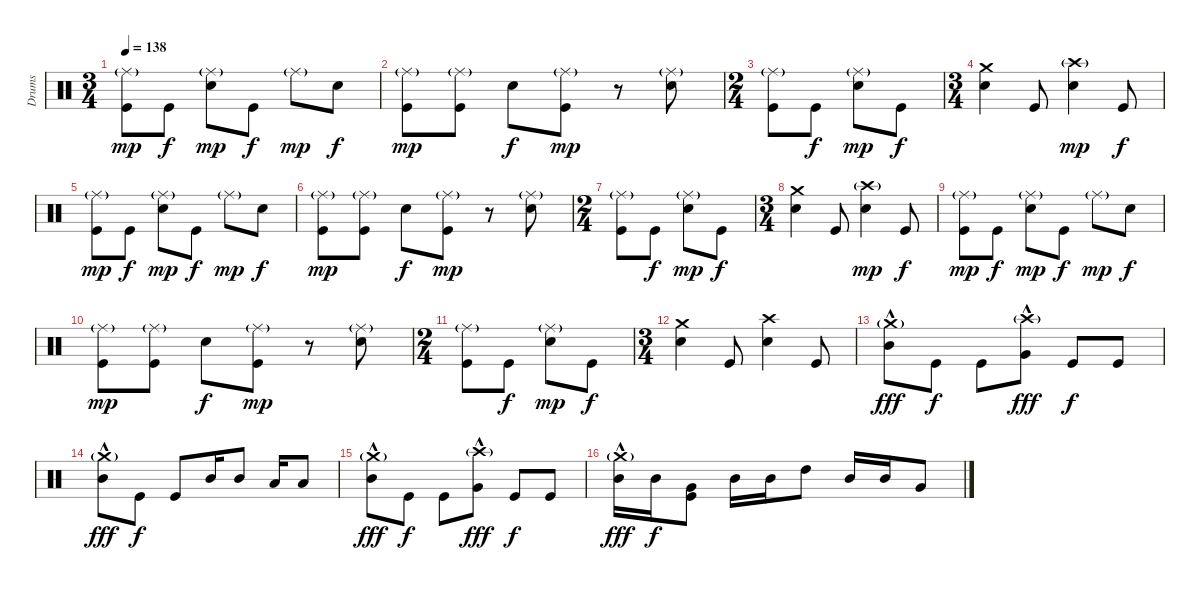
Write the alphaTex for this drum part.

\track ("Drums" "Drums") {instrument percussion}
\staff {score}
\articulation defaults
\ts (3 4)
\tempo 138
\clef neutral
\ks c
("Ride (middle)"{g} "Kick (hit)").8{dy mp} "Kick (hit)".8{dy f} ("Ride (middle)"{g} "Electric Snare (hit)").8{dy mp} "Kick (hit)".8{dy f} "Ride (middle)"{g}.8{dy mp} "Electric Snare (hit)".8{dy f} |
("Ride (middle)"{g} "Kick (hit)").8{dy mp} ("Ride (middle)"{g} "Kick (hit)").8 "Electric Snare (hit)".8{dy f} ("Ride (middle)"{g} "Kick (hit)").8{dy mp} r.8 ("Ride (middle)"{g} "Electric Snare (hit)").8 |
\ts (2 4)
("Ride (middle)"{g} "Kick (hit)").8 "Kick (hit)".8{dy f} ("Ride (middle)"{g} "Electric Snare (hit)").8{dy mp} "Kick (hit)".8{dy f} |
\ts (3 4)
("Crash medium (hit)" "Electric Snare (hit)").4 "Kick (hit)".8 ("Crash high (hit)"{g} "Electric Snare (hit)").4{dy mp} "Kick (hit)".8{dy f} |
("Ride (middle)"{g} "Kick (hit)").8{dy mp} "Kick (hit)".8{dy f} ("Ride (middle)"{g} "Electric Snare (hit)").8{dy mp} "Kick (hit)".8{dy f} "Ride (middle)"{g}.8{dy mp} "Electric Snare (hit)".8{dy f} |
("Ride (middle)"{g} "Kick (hit)").8{dy mp} ("Ride (middle)"{g} "Kick (hit)").8 "Electric Snare (hit)".8{dy f} ("Ride (middle)"{g} "Kick (hit)").8{dy mp} r.8 ("Ride (middle)"{g} "Electric Snare (hit)").8 |
\ts (2 4)
("Ride (middle)"{g} "Kick (hit)").8 "Kick (hit)".8{dy f} ("Ride (middle)"{g} "Electric Snare (hit)").8{dy mp} "Kick (hit)".8{dy f} |
\ts (3 4)
("Crash medium (hit)" "Electric Snare (hit)").4 "Kick (hit)".8 ("Crash high (hit)"{g} "Electric Snare (hit)").4{dy mp} "Kick (hit)".8{dy f} |
("Ride (middle)"{g} "Kick (hit)").8{dy mp} "Kick (hit)".8{dy f} ("Ride (middle)"{g} "Electric Snare (hit)").8{dy mp} "Kick (hit)".8{dy f} "Ride (middle)"{g}.8{dy mp} "Electric Snare (hit)".8{dy f} |
("Ride (middle)"{g} "Kick (hit)").8{dy mp} ("Ride (middle)"{g} "Kick (hit)").8 "Electric Snare (hit)".8{dy f} ("Ride (middle)"{g} "Kick (hit)").8{dy mp} r.8 ("Ride (middle)"{g} "Electric Snare (hit)").8 |
\ts (2 4)
("Ride (middle)"{g} "Kick (hit)").8 "Kick (hit)".8{dy f} ("Ride (middle)"{g} "Electric Snare (hit)").8{dy mp} "Kick (hit)".8{dy f} |
\ts (3 4)
("Crash medium (hit)" "Electric Snare (hit)").4 "Kick (hit)".8 ("Crash high (hit)" "Electric Snare (hit)").4 "Kick (hit)".8 |
("Crash medium (hit)"{g} "Mid Tom (hit)"{hac}).8{dy fff} "Kick (hit)".8{dy f} "Kick (hit)".8 ("Crash high (hit)"{g} "Very Low Tom (hit)"{hac}).8{dy fff} "Kick (hit)".8{dy f} "Kick (hit)".8 |
("Crash medium (hit)"{g} "Mid Tom (hit)"{hac}).8{dy fff} "Kick (hit)".8{dy f} "Kick (hit)".8 "Mid Tom (hit)".16 "Mid Tom (hit)".8 "Low Tom (hit)".16 "Low Tom (hit)".8 |
("Crash medium (hit)"{g} "Mid Tom (hit)"{hac}).8{dy fff} "Kick (hit)".8{dy f} "Kick (hit)".8 ("Crash high (hit)"{g} "Very Low Tom (hit)"{hac}).8{dy fff} "Kick (hit)".8{dy f} "Kick (hit)".8 |
("Crash medium (hit)"{g} "Mid Tom (hit)"{hac}).16{dy fff} "Mid Tom (hit)".16{dy f} ("Very Low Tom (hit)" "Kick (hit)").8 "Mid Tom (hit)".16 "Mid Tom (hit)".16 "High Tom (hit)".8 "Mid Tom (hit)".16 "Mid Tom (hit)".16 "Very Low Tom (hit)".8
